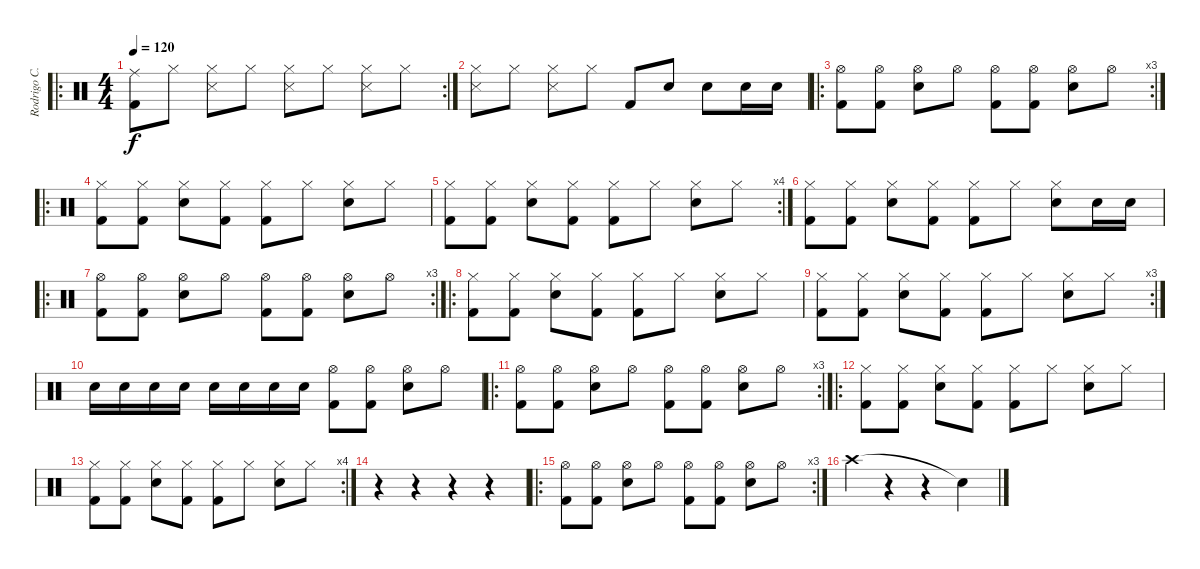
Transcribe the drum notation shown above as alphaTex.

\track ("Rodrigo C. (Bateria)" "Rodrigo C.") {instrument percussion}
\staff {score}
\articulation defaults
\ro
\rc 2
\ts (4 4)
\tempo 120
\clef neutral
\ks c
("Ride (middle)" "Kick (hit) 2").8{dy f} "Hi-Hat (closed)".8 ("Hi-Hat (closed)" "Snare (side stick) 3").8 "Hi-Hat (closed)".8 ("Hi-Hat (closed)" "Snare (side stick) 3").8 "Hi-Hat (closed)".8 ("Hi-Hat (closed)" "Snare (side stick) 3").8 "Hi-Hat (closed)".8 |
("Hi-Hat (closed)" "Snare (side stick) 3").8 "Hi-Hat (closed)".8 ("Hi-Hat (closed)" "Snare (side stick) 3").8 "Hi-Hat (closed)".8 "Kick (hit) 2".8 "Electric Snare (hit)".8 "Electric Snare (hit)".8 "Electric Snare (hit)".16 "Electric Snare (hit)".16 |
\ro
\rc 3
("Hi-Hat (open)" "Kick (hit) 2").8 ("Hi-Hat (open)" "Kick (hit) 2").8 ("Hi-Hat (open)" "Electric Snare (hit)").8 "Hi-Hat (open)".8 ("Hi-Hat (open)" "Kick (hit) 2").8 ("Hi-Hat (open)" "Kick (hit) 2").8 ("Hi-Hat (open)" "Electric Snare (hit)").8 "Hi-Hat (open)".8 |
\ro
("Hi-Hat (closed)" "Kick (hit) 2").8 ("Hi-Hat (closed)" "Kick (hit) 2").8 ("Hi-Hat (closed)" "Electric Snare (hit)").8 ("Hi-Hat (closed)" "Kick (hit) 2").8 ("Hi-Hat (closed)" "Kick (hit) 2").8 "Hi-Hat (closed)".8 ("Hi-Hat (closed)" "Electric Snare (hit)").8 "Hi-Hat (closed)".8 |
\rc 4
("Hi-Hat (closed)" "Kick (hit) 2").8 ("Hi-Hat (closed)" "Kick (hit) 2").8 ("Hi-Hat (closed)" "Electric Snare (hit)").8 ("Hi-Hat (closed)" "Kick (hit) 2").8 ("Hi-Hat (closed)" "Kick (hit) 2").8 "Hi-Hat (closed)".8 ("Hi-Hat (closed)" "Electric Snare (hit)").8 "Hi-Hat (closed)".8 |
("Hi-Hat (closed)" "Kick (hit) 2").8 ("Hi-Hat (closed)" "Kick (hit) 2").8 ("Hi-Hat (closed)" "Electric Snare (hit)").8 ("Hi-Hat (closed)" "Kick (hit) 2").8 ("Hi-Hat (closed)" "Kick (hit) 2").8 "Hi-Hat (closed)".8 ("Hi-Hat (closed)" "Electric Snare (hit)").8 "Electric Snare (hit)".16 "Electric Snare (hit)".16 |
\ro
\rc 3
("Hi-Hat (open)" "Kick (hit) 2").8 ("Hi-Hat (open)" "Kick (hit) 2").8 ("Hi-Hat (open)" "Electric Snare (hit)").8 "Hi-Hat (open)".8 ("Hi-Hat (open)" "Kick (hit) 2").8 ("Hi-Hat (open)" "Kick (hit) 2").8 ("Hi-Hat (open)" "Electric Snare (hit)").8 "Hi-Hat (open)".8 |
\ro
("Hi-Hat (closed)" "Kick (hit) 2").8 ("Hi-Hat (closed)" "Kick (hit) 2").8 ("Hi-Hat (closed)" "Electric Snare (hit)").8 ("Hi-Hat (closed)" "Kick (hit) 2").8 ("Hi-Hat (closed)" "Kick (hit) 2").8 "Hi-Hat (closed)".8 ("Hi-Hat (closed)" "Electric Snare (hit)").8 "Hi-Hat (closed)".8 |
\rc 3
("Hi-Hat (closed)" "Kick (hit) 2").8 ("Hi-Hat (closed)" "Kick (hit) 2").8 ("Hi-Hat (closed)" "Electric Snare (hit)").8 ("Hi-Hat (closed)" "Kick (hit) 2").8 ("Hi-Hat (closed)" "Kick (hit) 2").8 "Hi-Hat (closed)".8 ("Hi-Hat (closed)" "Electric Snare (hit)").8 "Hi-Hat (closed)".8 |
"Electric Snare (hit)".16 "Electric Snare (hit)".16 "Electric Snare (hit)".16 "Electric Snare (hit)".16 "Electric Snare (hit)".16 "Electric Snare (hit)".16 "Electric Snare (hit)".16 "Electric Snare (hit)".16 ("Hi-Hat (open)" "Kick (hit) 2").8 ("Hi-Hat (open)" "Kick (hit) 2").8 ("Hi-Hat (open)" "Electric Snare (hit)").8 "Hi-Hat (open)".8 |
\ro
\rc 3
("Hi-Hat (open)" "Kick (hit) 2").8 ("Hi-Hat (open)" "Kick (hit) 2").8 ("Hi-Hat (open)" "Electric Snare (hit)").8 "Hi-Hat (open)".8 ("Hi-Hat (open)" "Kick (hit) 2").8 ("Hi-Hat (open)" "Kick (hit) 2").8 ("Hi-Hat (open)" "Electric Snare (hit)").8 "Hi-Hat (open)".8 |
\ro
("Hi-Hat (closed)" "Kick (hit) 2").8 ("Hi-Hat (closed)" "Kick (hit) 2").8 ("Hi-Hat (closed)" "Electric Snare (hit)").8 ("Hi-Hat (closed)" "Kick (hit) 2").8 ("Hi-Hat (closed)" "Kick (hit) 2").8 "Hi-Hat (closed)".8 ("Hi-Hat (closed)" "Electric Snare (hit)").8 "Hi-Hat (closed)".8 |
\rc 4
("Hi-Hat (closed)" "Kick (hit) 2").8 ("Hi-Hat (closed)" "Kick (hit) 2").8 ("Hi-Hat (closed)" "Electric Snare (hit)").8 ("Hi-Hat (closed)" "Kick (hit) 2").8 ("Hi-Hat (closed)" "Kick (hit) 2").8 "Hi-Hat (closed)".8 ("Hi-Hat (closed)" "Electric Snare (hit)").8 "Hi-Hat (closed)".8 |
r.4 r.4 r.4 r.4 |
\ro
\rc 3
("Hi-Hat (open)" "Kick (hit) 2").8 ("Hi-Hat (open)" "Kick (hit) 2").8 ("Hi-Hat (open)" "Electric Snare (hit)").8 "Hi-Hat (open)".8 ("Hi-Hat (open)" "Kick (hit) 2").8 ("Hi-Hat (open)" "Kick (hit) 2").8 ("Hi-Hat (open)" "Electric Snare (hit)").8 "Hi-Hat (open)".8 |
"Crash high (hit)".4 r.4 r.4 "Snare (hit)"{t}.4
